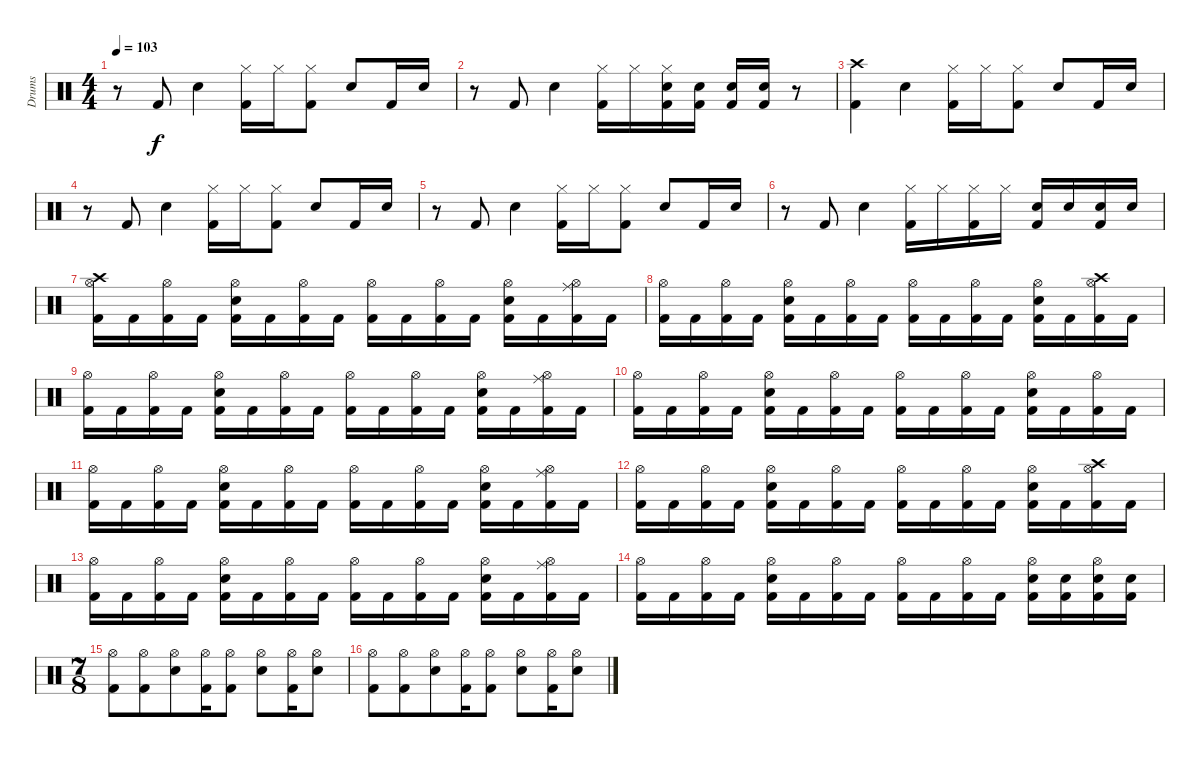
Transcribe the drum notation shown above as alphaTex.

\track ("Drums" "Drums") {instrument percussion}
\staff {score}
\articulation defaults
\ts (4 4)
\tempo 103
\clef neutral
\ks c
r.8{dy f} "Kick (hit) 2".8 "Electric Snare (hit)".4 ("Hi-Hat (closed)" "Kick (hit) 2").16 "Hi-Hat (closed)".16 ("Hi-Hat (closed)" "Kick (hit) 2").8 "Electric Snare (hit)".8 "Kick (hit) 2".16 "Electric Snare (hit)".16 |
r.8 "Kick (hit) 2".8 "Electric Snare (hit)".4 ("Hi-Hat (closed)" "Kick (hit) 2").16 "Hi-Hat (closed)".16 ("Hi-Hat (closed)" "Snare (hit) 2" "Kick (hit) 2").16 ("Snare (hit) 2" "Kick (hit) 2").16 ("Snare (hit) 2" "Kick (hit) 2").16 ("Snare (hit) 2" "Kick (hit) 2").16 r.8 |
("Crash high (hit)" "Kick (hit) 2").4 "Electric Snare (hit)".4 ("Hi-Hat (closed)" "Kick (hit) 2").16 "Hi-Hat (closed)".16 ("Hi-Hat (closed)" "Kick (hit) 2").8 "Electric Snare (hit)".8 "Kick (hit) 2".16 "Electric Snare (hit)".16 |
r.8 "Kick (hit) 2".8 "Electric Snare (hit)".4 ("Hi-Hat (closed)" "Kick (hit) 2").16 "Hi-Hat (closed)".16 ("Hi-Hat (closed)" "Kick (hit) 2").8 "Electric Snare (hit)".8 "Kick (hit) 2".16 "Electric Snare (hit)".16 |
r.8 "Kick (hit) 2".8 "Electric Snare (hit)".4 ("Hi-Hat (closed)" "Kick (hit) 2").16 "Hi-Hat (closed)".16 ("Hi-Hat (closed)" "Kick (hit) 2").8 "Electric Snare (hit)".8 "Kick (hit) 2".16 "Electric Snare (hit)".16 |
r.8 "Kick (hit) 2".8 "Electric Snare (hit)".4 ("Hi-Hat (closed)" "Kick (hit) 2").16 "Hi-Hat (closed)".16 ("Hi-Hat (closed)" "Kick (hit) 2").16 "Hi-Hat (closed)".16 ("Snare (hit) 2" "Kick (hit) 2").16 "Snare (hit) 2".16 ("Snare (hit) 2" "Kick (hit) 2").16 "Snare (hit) 2".16 |
("Hi-Hat (open)" "Crash high (hit)" "Kick (hit) 2").16 "Kick (hit) 2".16 ("Hi-Hat (open)" "Kick (hit) 2").16 "Kick (hit) 2".16 ("Hi-Hat (open)" "Electric Snare (hit)" "Kick (hit) 2").16 "Kick (hit) 2".16 ("Hi-Hat (open)" "Kick (hit) 2").16 "Kick (hit) 2".16 ("Hi-Hat (open)" "Kick (hit) 2").16 "Kick (hit) 2".16 ("Hi-Hat (open)" "Kick (hit) 2").16 "Kick (hit) 2".16 ("Hi-Hat (open)" "Electric Snare (hit)" "Kick (hit) 2").16 "Kick (hit) 2".16 ("Hi-Hat (open)" "Ride (middle)" "Kick (hit) 2").16 "Kick (hit) 2".16 |
("Hi-Hat (open)" "Kick (hit) 2").16 "Kick (hit) 2".16 ("Hi-Hat (open)" "Kick (hit) 2").16 "Kick (hit) 2".16 ("Hi-Hat (open)" "Electric Snare (hit)" "Kick (hit) 2").16 "Kick (hit) 2".16 ("Hi-Hat (open)" "Kick (hit) 2").16 "Kick (hit) 2".16 ("Hi-Hat (open)" "Kick (hit) 2").16 "Kick (hit) 2".16 ("Hi-Hat (open)" "Kick (hit) 2").16 "Kick (hit) 2".16 ("Hi-Hat (open)" "Electric Snare (hit)" "Kick (hit) 2").16 "Kick (hit) 2".16 ("Hi-Hat (open)" "Crash high (hit)" "Kick (hit) 2").16 "Kick (hit) 2".16 |
("Hi-Hat (open)" "Kick (hit) 2").16 "Kick (hit) 2".16 ("Hi-Hat (open)" "Kick (hit) 2").16 "Kick (hit) 2".16 ("Hi-Hat (open)" "Electric Snare (hit)" "Kick (hit) 2").16 "Kick (hit) 2".16 ("Hi-Hat (open)" "Kick (hit) 2").16 "Kick (hit) 2".16 ("Hi-Hat (open)" "Kick (hit) 2").16 "Kick (hit) 2".16 ("Hi-Hat (open)" "Kick (hit) 2").16 "Kick (hit) 2".16 ("Hi-Hat (open)" "Electric Snare (hit)" "Kick (hit) 2").16 "Kick (hit) 2".16 ("Hi-Hat (open)" "Ride (middle)" "Kick (hit) 2").16 "Kick (hit) 2".16 |
("Hi-Hat (open)" "Kick (hit) 2").16 "Kick (hit) 2".16 ("Hi-Hat (open)" "Kick (hit) 2").16 "Kick (hit) 2".16 ("Hi-Hat (open)" "Electric Snare (hit)" "Kick (hit) 2").16 "Kick (hit) 2".16 ("Hi-Hat (open)" "Kick (hit) 2").16 "Kick (hit) 2".16 ("Hi-Hat (open)" "Kick (hit) 2").16 "Kick (hit) 2".16 ("Hi-Hat (open)" "Kick (hit) 2").16 "Kick (hit) 2".16 ("Hi-Hat (open)" "Electric Snare (hit)" "Kick (hit) 2").16 "Kick (hit) 2".16 ("Hi-Hat (open)" "Kick (hit) 2").16 "Kick (hit) 2".16 |
("Hi-Hat (open)" "Kick (hit) 2").16 "Kick (hit) 2".16 ("Hi-Hat (open)" "Kick (hit) 2").16 "Kick (hit) 2".16 ("Hi-Hat (open)" "Electric Snare (hit)" "Kick (hit) 2").16 "Kick (hit) 2".16 ("Hi-Hat (open)" "Kick (hit) 2").16 "Kick (hit) 2".16 ("Hi-Hat (open)" "Kick (hit) 2").16 "Kick (hit) 2".16 ("Hi-Hat (open)" "Kick (hit) 2").16 "Kick (hit) 2".16 ("Hi-Hat (open)" "Electric Snare (hit)" "Kick (hit) 2").16 "Kick (hit) 2".16 ("Hi-Hat (open)" "Ride (middle)" "Kick (hit) 2").16 "Kick (hit) 2".16 |
("Hi-Hat (open)" "Kick (hit) 2").16 "Kick (hit) 2".16 ("Hi-Hat (open)" "Kick (hit) 2").16 "Kick (hit) 2".16 ("Hi-Hat (open)" "Electric Snare (hit)" "Kick (hit) 2").16 "Kick (hit) 2".16 ("Hi-Hat (open)" "Kick (hit) 2").16 "Kick (hit) 2".16 ("Hi-Hat (open)" "Kick (hit) 2").16 "Kick (hit) 2".16 ("Hi-Hat (open)" "Kick (hit) 2").16 "Kick (hit) 2".16 ("Hi-Hat (open)" "Electric Snare (hit)" "Kick (hit) 2").16 "Kick (hit) 2".16 ("Hi-Hat (open)" "Crash high (hit)" "Kick (hit) 2").16 "Kick (hit) 2".16 |
("Hi-Hat (open)" "Kick (hit) 2").16 "Kick (hit) 2".16 ("Hi-Hat (open)" "Kick (hit) 2").16 "Kick (hit) 2".16 ("Hi-Hat (open)" "Electric Snare (hit)" "Kick (hit) 2").16 "Kick (hit) 2".16 ("Hi-Hat (open)" "Kick (hit) 2").16 "Kick (hit) 2".16 ("Hi-Hat (open)" "Kick (hit) 2").16 "Kick (hit) 2".16 ("Hi-Hat (open)" "Kick (hit) 2").16 "Kick (hit) 2".16 ("Hi-Hat (open)" "Electric Snare (hit)" "Kick (hit) 2").16 "Kick (hit) 2".16 ("Hi-Hat (open)" "Ride (middle)" "Kick (hit) 2").16 "Kick (hit) 2".16 |
("Hi-Hat (open)" "Kick (hit) 2").16 "Kick (hit) 2".16 ("Hi-Hat (open)" "Kick (hit) 2").16 "Kick (hit) 2".16 ("Hi-Hat (open)" "Electric Snare (hit)" "Kick (hit) 2").16 "Kick (hit) 2".16 ("Hi-Hat (open)" "Kick (hit) 2").16 "Kick (hit) 2".16 ("Hi-Hat (open)" "Kick (hit) 2").16 "Kick (hit) 2".16 ("Hi-Hat (open)" "Kick (hit) 2").16 "Kick (hit) 2".16 ("Hi-Hat (open)" "Snare (hit) 2" "Kick (hit) 2").16 ("Snare (hit) 2" "Kick (hit) 2").16 ("Hi-Hat (open)" "Snare (hit) 2" "Kick (hit) 2").16 ("Snare (hit) 2" "Kick (hit) 2").16 |
\ts (7 8)
("Hi-Hat (open)" "Kick (hit) 2").8 ("Hi-Hat (open)" "Kick (hit) 2").8 ("Hi-Hat (open)" "Electric Snare (hit)").8 ("Hi-Hat (open)" "Kick (hit) 2").16 ("Hi-Hat (open)" "Kick (hit) 2").8 ("Hi-Hat (open)" "Electric Snare (hit)").8 ("Hi-Hat (open)" "Kick (hit) 2").16 ("Hi-Hat (open)" "Electric Snare (hit)").8 |
("Hi-Hat (open)" "Kick (hit) 2").8 ("Hi-Hat (open)" "Kick (hit) 2").8 ("Hi-Hat (open)" "Electric Snare (hit)").8 ("Hi-Hat (open)" "Kick (hit) 2").16 ("Hi-Hat (open)" "Kick (hit) 2").8 ("Hi-Hat (open)" "Electric Snare (hit)").8 ("Hi-Hat (open)" "Kick (hit) 2").16 ("Hi-Hat (open)" "Electric Snare (hit)").8
